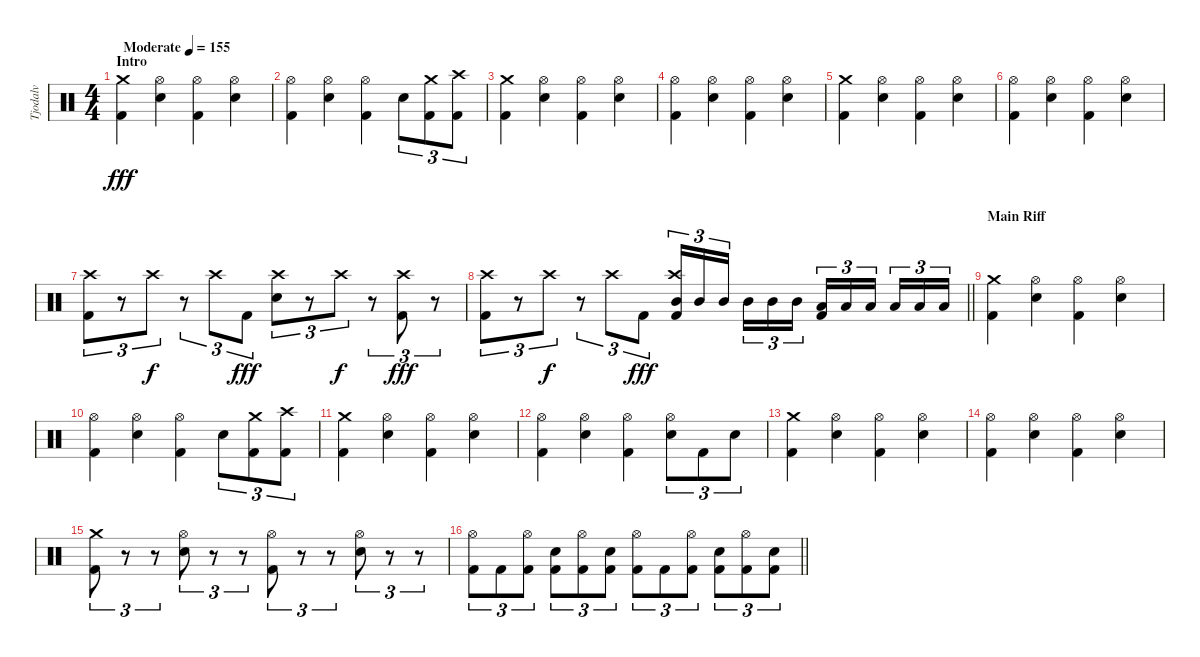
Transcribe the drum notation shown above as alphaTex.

\track ("Tjodalv" "Tjodalv") {instrument percussion}
\staff {score}
\articulation defaults
\ts (4 4)
\section ("" "Intro")
\tempo (155 "Moderate")
\clef neutral
\ks c
("Crash medium (hit)" "Kick (hit) 2").4{dy fff} ("Hi-Hat (open)" "Snare (hit) 2").4 ("Hi-Hat (open)" "Kick (hit) 2").4 ("Hi-Hat (open)" "Snare (hit) 2").4 |
("Hi-Hat (open)" "Kick (hit) 2").4 ("Hi-Hat (open)" "Snare (hit) 2").4 ("Hi-Hat (open)" "Kick (hit) 2").4 "Snare (hit) 2".8{tu (3 2)} ("Crash medium (hit)" "Kick (hit) 2").8{tu (3 2)} ("Crash high (hit)" "Kick (hit) 2").8{tu (3 2)} |
("Crash medium (hit)" "Kick (hit) 2").4 ("Hi-Hat (open)" "Snare (hit) 2").4 ("Hi-Hat (open)" "Kick (hit) 2").4 ("Hi-Hat (open)" "Snare (hit) 2").4 |
("Hi-Hat (open)" "Kick (hit) 2").4 ("Hi-Hat (open)" "Snare (hit) 2").4 ("Hi-Hat (open)" "Kick (hit) 2").4 ("Hi-Hat (open)" "Snare (hit) 2").4 |
("Crash medium (hit)" "Kick (hit) 2").4 ("Hi-Hat (open)" "Snare (hit) 2").4 ("Hi-Hat (open)" "Kick (hit) 2").4 ("Hi-Hat (open)" "Snare (hit) 2").4 |
("Hi-Hat (open)" "Kick (hit) 2").4 ("Hi-Hat (open)" "Snare (hit) 2").4 ("Hi-Hat (open)" "Kick (hit) 2").4 ("Hi-Hat (open)" "Snare (hit) 2").4 |
("Crash high (hit)" "Kick (hit) 2").8{tu (3 2)} r.8{tu (3 2)} "Crash high (hit)".8{tu (3 2) dy f} r.8{tu (3 2)} "Crash high (hit)".8{tu (3 2)} "Kick (hit) 2".8{tu (3 2) dy fff} ("Crash high (hit)" "Snare (hit) 2").8{tu (3 2)} r.8{tu (3 2)} "Crash high (hit)".8{tu (3 2) dy f} r.8{tu (3 2)} ("Crash high (hit)" "Kick (hit) 2").8{tu (3 2) dy fff} r.8{tu (3 2)} |
\barLineRight lightlight
("Crash high (hit)" "Kick (hit) 2").8{tu (3 2)} r.8{tu (3 2)} "Crash high (hit)".8{tu (3 2) dy f} r.8{tu (3 2)} "Crash high (hit)".8{tu (3 2)} "Kick (hit) 2".8{tu (3 2) dy fff} ("Crash high (hit)" "Mid Tom (hit)" "Kick (hit) 2").16{tu (3 2)} "Mid Tom (hit)".16{tu (3 2)} "Mid Tom (hit)".16{tu (3 2) beam splitsecondary} "Mid Tom (hit)".16{tu (3 2)} "Mid Tom (hit)".16{tu (3 2)} "Mid Tom (hit)".16{tu (3 2)} ("Low Tom (hit)" "Kick (hit) 2").16{tu (3 2)} "Low Tom (hit)".16{tu (3 2)} "Low Tom (hit)".16{tu (3 2) beam splitsecondary} "Low Tom (hit)".16{tu (3 2)} "Low Tom (hit)".16{tu (3 2)} "Low Tom (hit)".16{tu (3 2)} |
\section ("" "Main Riff")
("Crash medium (hit)" "Kick (hit) 2").4 ("Hi-Hat (open)" "Snare (hit) 2").4 ("Hi-Hat (open)" "Kick (hit) 2").4 ("Hi-Hat (open)" "Snare (hit) 2").4 |
("Hi-Hat (open)" "Kick (hit) 2").4 ("Hi-Hat (open)" "Snare (hit) 2").4 ("Hi-Hat (open)" "Kick (hit) 2").4 "Snare (hit) 2".8{tu (3 2)} ("Crash medium (hit)" "Kick (hit) 2").8{tu (3 2)} ("Crash high (hit)" "Kick (hit) 2").8{tu (3 2)} |
("Crash medium (hit)" "Kick (hit) 2").4 ("Hi-Hat (open)" "Snare (hit) 2").4 ("Hi-Hat (open)" "Kick (hit) 2").4 ("Hi-Hat (open)" "Snare (hit) 2").4 |
("Hi-Hat (open)" "Kick (hit) 2").4 ("Hi-Hat (open)" "Snare (hit) 2").4 ("Hi-Hat (open)" "Kick (hit) 2").4 ("Hi-Hat (open)" "Snare (hit) 2").8{tu (3 2)} "Kick (hit) 2".8{tu (3 2)} "Snare (hit) 2".8{tu (3 2)} |
("Crash medium (hit)" "Kick (hit) 2").4 ("Hi-Hat (open)" "Snare (hit) 2").4 ("Hi-Hat (open)" "Kick (hit) 2").4 ("Hi-Hat (open)" "Snare (hit) 2").4 |
("Hi-Hat (open)" "Kick (hit) 2").4 ("Hi-Hat (open)" "Snare (hit) 2").4 ("Hi-Hat (open)" "Kick (hit) 2").4 ("Hi-Hat (open)" "Snare (hit) 2").4 |
("Crash medium (hit)" "Kick (hit) 2").8{tu (3 2)} r.8{tu (3 2)} r.8{tu (3 2)} ("Hi-Hat (open)" "Snare (hit) 2").8{tu (3 2)} r.8{tu (3 2)} r.8{tu (3 2)} ("Hi-Hat (open)" "Kick (hit) 2").8{tu (3 2)} r.8{tu (3 2)} r.8{tu (3 2)} ("Hi-Hat (open)" "Snare (hit) 2").8{tu (3 2)} r.8{tu (3 2)} r.8{tu (3 2)} |
\barLineRight lightlight
("Hi-Hat (open)" "Kick (hit) 2").8{tu (3 2)} "Kick (hit) 2".8{tu (3 2)} ("Hi-Hat (open)" "Kick (hit) 2").8{tu (3 2)} ("Snare (hit) 2" "Kick (hit) 2").8{tu (3 2)} ("Hi-Hat (open)" "Kick (hit) 2").8{tu (3 2)} ("Snare (hit) 2" "Kick (hit) 2").8{tu (3 2)} ("Hi-Hat (open)" "Kick (hit) 2").8{tu (3 2)} "Kick (hit) 2".8{tu (3 2)} ("Hi-Hat (open)" "Kick (hit) 2").8{tu (3 2)} ("Snare (hit) 2" "Kick (hit) 2").8{tu (3 2)} ("Hi-Hat (open)" "Kick (hit) 2").8{tu (3 2)} ("Snare (hit) 2" "Kick (hit) 2").8{tu (3 2)}
